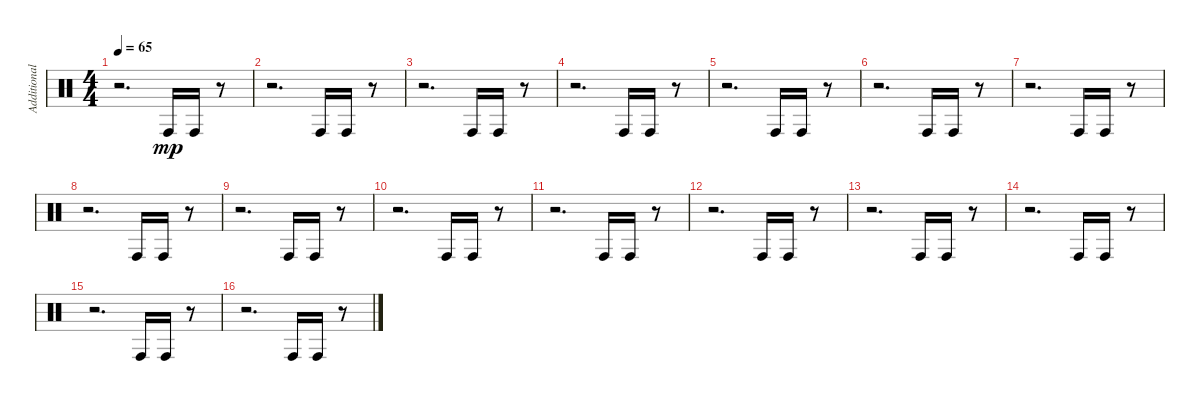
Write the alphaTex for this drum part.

\track ("Additional Percussions" "Additional") {instrument percussion}
\staff {score}
\articulation defaults
\ts (4 4)
\tempo 65
\clef neutral
\ks c
r.2{d dy mp} "Conga high (hit)".16 "Conga high (hit)".16 r.8 |
r.2{d} "Conga high (hit)".16 "Conga high (hit)".16 r.8 |
r.2{d} "Conga high (hit)".16 "Conga high (hit)".16 r.8 |
r.2{d} "Conga high (hit)".16 "Conga high (hit)".16 r.8 |
r.2{d} "Conga high (hit)".16 "Conga high (hit)".16 r.8 |
r.2{d} "Conga high (hit)".16 "Conga high (hit)".16 r.8 |
r.2{d} "Conga high (hit)".16 "Conga high (hit)".16 r.8 |
r.2{d} "Conga high (hit)".16 "Conga high (hit)".16 r.8 |
r.2{d} "Conga high (hit)".16 "Conga high (hit)".16 r.8 |
r.2{d} "Conga high (hit)".16 "Conga high (hit)".16 r.8 |
r.2{d} "Conga high (hit)".16 "Conga high (hit)".16 r.8 |
r.2{d} "Conga high (hit)".16 "Conga high (hit)".16 r.8 |
r.2{d} "Conga high (hit)".16 "Conga high (hit)".16 r.8 |
r.2{d} "Conga high (hit)".16 "Conga high (hit)".16 r.8 |
r.2{d} "Conga high (hit)".16 "Conga high (hit)".16 r.8 |
r.2{d} "Conga high (hit)".16 "Conga high (hit)".16 r.8
